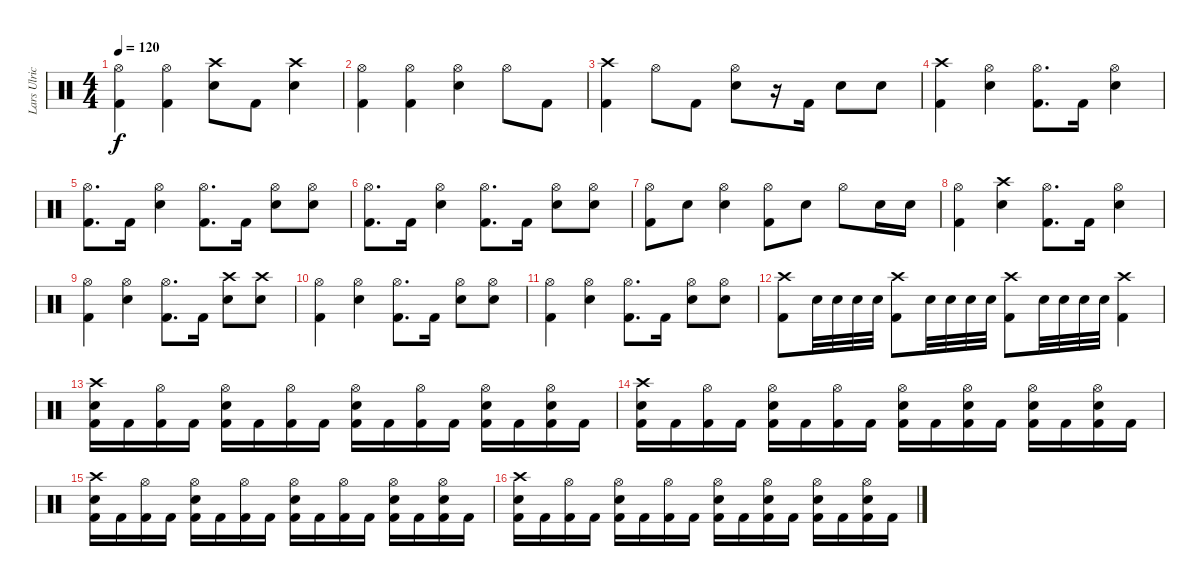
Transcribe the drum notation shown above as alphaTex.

\track ("Lars Ulrich" "Lars Ulric") {instrument percussion}
\staff {score}
\articulation defaults
\ts (4 4)
\tempo 120
\clef neutral
\ks c
("Hi-Hat (open)" "Kick (hit) 2").4{dy f} ("Hi-Hat (open)" "Kick (hit) 2").4 ("Crash high (hit)" "Electric Snare (hit)").8 "Kick (hit) 2".8 ("Crash high (hit)" "Electric Snare (hit)").4 |
("Hi-Hat (open)" "Kick (hit) 2").4 ("Hi-Hat (open)" "Kick (hit) 2").4 ("Hi-Hat (open)" "Electric Snare (hit)").4 "Hi-Hat (open)".8 "Kick (hit) 2".8 |
("Crash high (hit)" "Kick (hit) 2").4 "Hi-Hat (open)".8 "Kick (hit) 2".8 ("Hi-Hat (open)" "Electric Snare (hit)").8 r.16 "Kick (hit) 2".16 "Electric Snare (hit)".8 "Electric Snare (hit)".8 |
("Crash high (hit)" "Kick (hit) 2").4 ("Hi-Hat (open)" "Electric Snare (hit)").4 ("Hi-Hat (open)" "Kick (hit) 2").8{d} "Kick (hit) 2".16 ("Hi-Hat (open)" "Electric Snare (hit)").4 |
("Hi-Hat (open)" "Kick (hit) 2").8{d} "Kick (hit) 2".16 ("Hi-Hat (open)" "Electric Snare (hit)").4 ("Hi-Hat (open)" "Kick (hit) 2").8{d} "Kick (hit) 2".16 ("Hi-Hat (open)" "Electric Snare (hit)").8 ("Hi-Hat (open)" "Electric Snare (hit)").8 |
("Hi-Hat (open)" "Kick (hit) 2").8{d} "Kick (hit) 2".16 ("Hi-Hat (open)" "Electric Snare (hit)").4 ("Hi-Hat (open)" "Kick (hit) 2").8{d} "Kick (hit) 2".16 ("Hi-Hat (open)" "Electric Snare (hit)").8 ("Hi-Hat (open)" "Electric Snare (hit)").8 |
("Hi-Hat (open)" "Kick (hit) 2").8 "Electric Snare (hit)".8 ("Hi-Hat (open)" "Electric Snare (hit)").4 ("Hi-Hat (open)" "Kick (hit) 2").8 "Electric Snare (hit)".8 "Hi-Hat (open)".8 "Electric Snare (hit)".16 "Electric Snare (hit)".16 |
("Hi-Hat (open)" "Kick (hit) 2").4 ("Crash high (hit)" "Electric Snare (hit)").4 ("Hi-Hat (open)" "Kick (hit) 2").8{d} "Kick (hit) 2".16 ("Hi-Hat (open)" "Electric Snare (hit)").4 |
("Hi-Hat (open)" "Kick (hit) 2").4 ("Hi-Hat (open)" "Electric Snare (hit)").4 ("Hi-Hat (open)" "Kick (hit) 2").8{d} "Kick (hit) 2".16 ("Crash high (hit)" "Electric Snare (hit)").8 ("Crash high (hit)" "Electric Snare (hit)").8 |
("Hi-Hat (open)" "Kick (hit) 2").4 ("Hi-Hat (open)" "Electric Snare (hit)").4 ("Hi-Hat (open)" "Kick (hit) 2").8{d} "Kick (hit) 2".16 ("Hi-Hat (open)" "Electric Snare (hit)").8 ("Hi-Hat (open)" "Electric Snare (hit)").8 |
("Hi-Hat (open)" "Kick (hit) 2").4 ("Hi-Hat (open)" "Electric Snare (hit)").4 ("Hi-Hat (open)" "Kick (hit) 2").8{d} "Kick (hit) 2".16 ("Hi-Hat (open)" "Electric Snare (hit)").8 ("Hi-Hat (open)" "Electric Snare (hit)").8 |
("Kick (hit) 2" "Crash high (hit)").8 "Electric Snare (hit)".32 "Electric Snare (hit)".32 "Electric Snare (hit)".32 "Electric Snare (hit)".32 ("Kick (hit) 2" "Crash high (hit)").8 "Electric Snare (hit)".32 "Electric Snare (hit)".32 "Electric Snare (hit)".32 "Electric Snare (hit)".32 ("Kick (hit) 2" "Crash high (hit)").8 "Electric Snare (hit)".32 "Electric Snare (hit)".32 "Electric Snare (hit)".32 "Electric Snare (hit)".32 ("Kick (hit) 2" "Crash high (hit)").4 |
("Crash high (hit)" "Electric Snare (hit)" "Kick (hit) 2").16 "Kick (hit) 2".16 ("Hi-Hat (open)" "Kick (hit) 2").16 "Kick (hit) 2".16 ("Hi-Hat (open)" "Electric Snare (hit)" "Kick (hit) 2").16 "Kick (hit) 2".16 ("Hi-Hat (open)" "Kick (hit) 2").16 "Kick (hit) 2".16 ("Hi-Hat (open)" "Electric Snare (hit)" "Kick (hit) 2").16 "Kick (hit) 2".16 ("Hi-Hat (open)" "Kick (hit) 2").16 "Kick (hit) 2".16 ("Hi-Hat (open)" "Electric Snare (hit)" "Kick (hit) 2").16 "Kick (hit) 2".16 ("Hi-Hat (open)" "Electric Snare (hit)" "Kick (hit) 2").16 "Kick (hit) 2".16 |
("Crash high (hit)" "Electric Snare (hit)" "Kick (hit) 2").16 "Kick (hit) 2".16 ("Hi-Hat (open)" "Kick (hit) 2").16 "Kick (hit) 2".16 ("Hi-Hat (open)" "Electric Snare (hit)" "Kick (hit) 2").16 "Kick (hit) 2".16 ("Hi-Hat (open)" "Kick (hit) 2").16 "Kick (hit) 2".16 ("Hi-Hat (open)" "Electric Snare (hit)" "Kick (hit) 2").16 "Kick (hit) 2".16 ("Hi-Hat (open)" "Electric Snare (hit)" "Kick (hit) 2").16 "Kick (hit) 2".16 ("Hi-Hat (open)" "Electric Snare (hit)" "Kick (hit) 2").16 "Kick (hit) 2".16 ("Hi-Hat (open)" "Electric Snare (hit)" "Kick (hit) 2").16 "Kick (hit) 2".16 |
("Crash high (hit)" "Electric Snare (hit)" "Kick (hit) 2").16 "Kick (hit) 2".16 ("Hi-Hat (open)" "Kick (hit) 2").16 "Kick (hit) 2".16 ("Hi-Hat (open)" "Electric Snare (hit)" "Kick (hit) 2").16 "Kick (hit) 2".16 ("Hi-Hat (open)" "Kick (hit) 2").16 "Kick (hit) 2".16 ("Hi-Hat (open)" "Electric Snare (hit)" "Kick (hit) 2").16 "Kick (hit) 2".16 ("Hi-Hat (open)" "Kick (hit) 2").16 "Kick (hit) 2".16 ("Hi-Hat (open)" "Electric Snare (hit)" "Kick (hit) 2").16 "Kick (hit) 2".16 ("Hi-Hat (open)" "Electric Snare (hit)" "Kick (hit) 2").16 "Kick (hit) 2".16 |
("Crash high (hit)" "Electric Snare (hit)" "Kick (hit) 2").16 "Kick (hit) 2".16 ("Hi-Hat (open)" "Kick (hit) 2").16 "Kick (hit) 2".16 ("Hi-Hat (open)" "Electric Snare (hit)" "Kick (hit) 2").16 "Kick (hit) 2".16 ("Hi-Hat (open)" "Kick (hit) 2").16 "Kick (hit) 2".16 ("Hi-Hat (open)" "Electric Snare (hit)" "Kick (hit) 2").16 "Kick (hit) 2".16 ("Hi-Hat (open)" "Electric Snare (hit)" "Kick (hit) 2").16 "Kick (hit) 2".16 ("Hi-Hat (open)" "Electric Snare (hit)" "Kick (hit) 2").16 "Kick (hit) 2".16 ("Hi-Hat (open)" "Electric Snare (hit)" "Kick (hit) 2").16 "Kick (hit) 2".16
